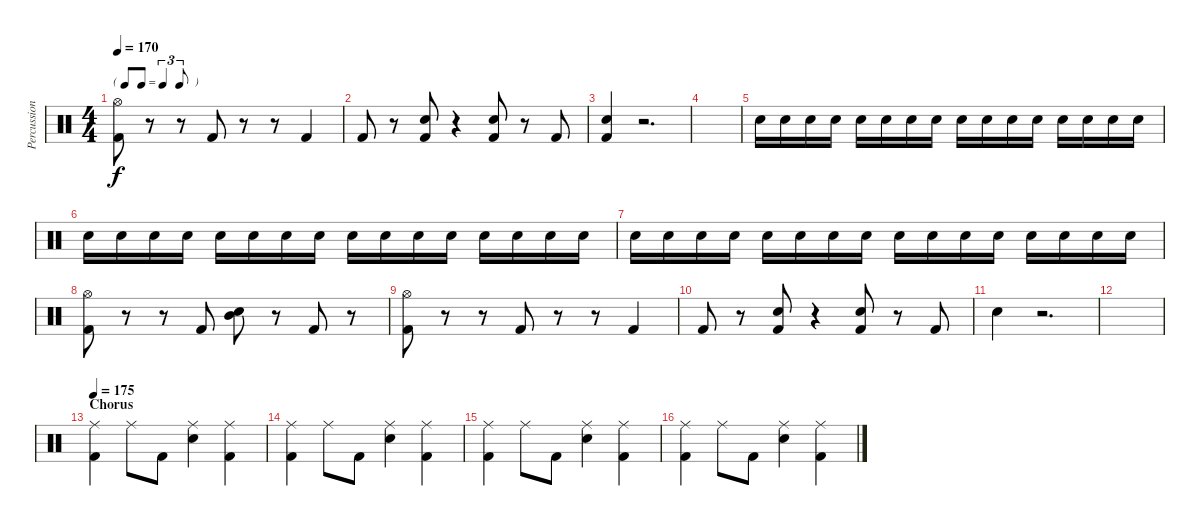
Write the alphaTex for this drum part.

\track ("Percussion" "Percussion") {instrument percussion}
\staff {score}
\articulation defaults
\ts (4 4)
\tf triplet8th
\tempo 170
\clef neutral
\ks c
("Hi-Hat (open)" "Kick (hit) 2").8{dy f} r.8 r.8 "Kick (hit) 2".8 r.8 r.8 "Kick (hit) 2".4 |
"Kick (hit) 2".8 r.8 ("Electric Snare (hit)" "Kick (hit) 2").8 r.4 ("Electric Snare (hit)" "Kick (hit) 2").8 r.8 "Kick (hit) 2".8 |
("Electric Snare (hit)" "Kick (hit) 2").4 r.2{d} |
|
"Electric Snare (hit)".16{volume 2} "Electric Snare (hit)".16{volume 4} "Electric Snare (hit)".16 "Electric Snare (hit)".16 "Electric Snare (hit)".16 "Electric Snare (hit)".16 "Electric Snare (hit)".16 "Electric Snare (hit)".16 "Electric Snare (hit)".16 "Electric Snare (hit)".16 "Electric Snare (hit)".16 "Electric Snare (hit)".16 "Electric Snare (hit)".16 "Electric Snare (hit)".16 "Electric Snare (hit)".16 "Electric Snare (hit)".16 |
"Electric Snare (hit)".16 "Electric Snare (hit)".16 "Electric Snare (hit)".16 "Electric Snare (hit)".16 "Electric Snare (hit)".16 "Electric Snare (hit)".16 "Electric Snare (hit)".16 "Electric Snare (hit)".16 "Electric Snare (hit)".16 "Electric Snare (hit)".16 "Electric Snare (hit)".16 "Electric Snare (hit)".16 "Electric Snare (hit)".16 "Electric Snare (hit)".16 "Electric Snare (hit)".16 "Electric Snare (hit)".16 |
"Electric Snare (hit)".16 "Electric Snare (hit)".16 "Electric Snare (hit)".16 "Electric Snare (hit)".16 "Electric Snare (hit)".16 "Electric Snare (hit)".16 "Electric Snare (hit)".16 "Electric Snare (hit)".16 "Electric Snare (hit)".16 "Electric Snare (hit)".16 "Electric Snare (hit)".16 "Electric Snare (hit)".16 "Electric Snare (hit)".16 "Electric Snare (hit)".16 "Electric Snare (hit)".16 "Electric Snare (hit)".16 |
("Hi-Hat (open)" "Kick (hit) 2").8{volume 13} r.8 r.8 "Kick (hit) 2".8 ("Electric Snare (hit)" "Mid Tom (hit)").8 r.8 "Kick (hit) 2".8 r.8 |
("Hi-Hat (open)" "Kick (hit) 2").8 r.8 r.8 "Kick (hit) 2".8 r.8 r.8 "Kick (hit) 2".4 |
"Kick (hit) 2".8 r.8 ("Electric Snare (hit)" "Kick (hit) 2").8 r.4 ("Electric Snare (hit)" "Kick (hit) 2").8 r.8 "Kick (hit) 2".8 |
"Electric Snare (hit)".4 r.2{d} |
|
\section ("" "Chorus")
\tempo 175
("Ride (middle)" "Kick (hit) 2").4 "Ride (middle)".8 "Kick (hit) 2".8 ("Ride (middle)" "Electric Snare (hit)").4 ("Ride (middle)" "Kick (hit) 2").4 |
("Ride (middle)" "Kick (hit) 2").4 "Ride (middle)".8 "Kick (hit) 2".8 ("Ride (middle)" "Electric Snare (hit)").4 ("Ride (middle)" "Kick (hit) 2").4 |
("Ride (middle)" "Kick (hit) 2").4 "Ride (middle)".8 "Kick (hit) 2".8 ("Ride (middle)" "Electric Snare (hit)").4 ("Ride (middle)" "Kick (hit) 2").4 |
("Ride (middle)" "Kick (hit) 2").4 "Ride (middle)".8 "Kick (hit) 2".8 ("Ride (middle)" "Electric Snare (hit)").4 ("Ride (middle)" "Kick (hit) 2").4
